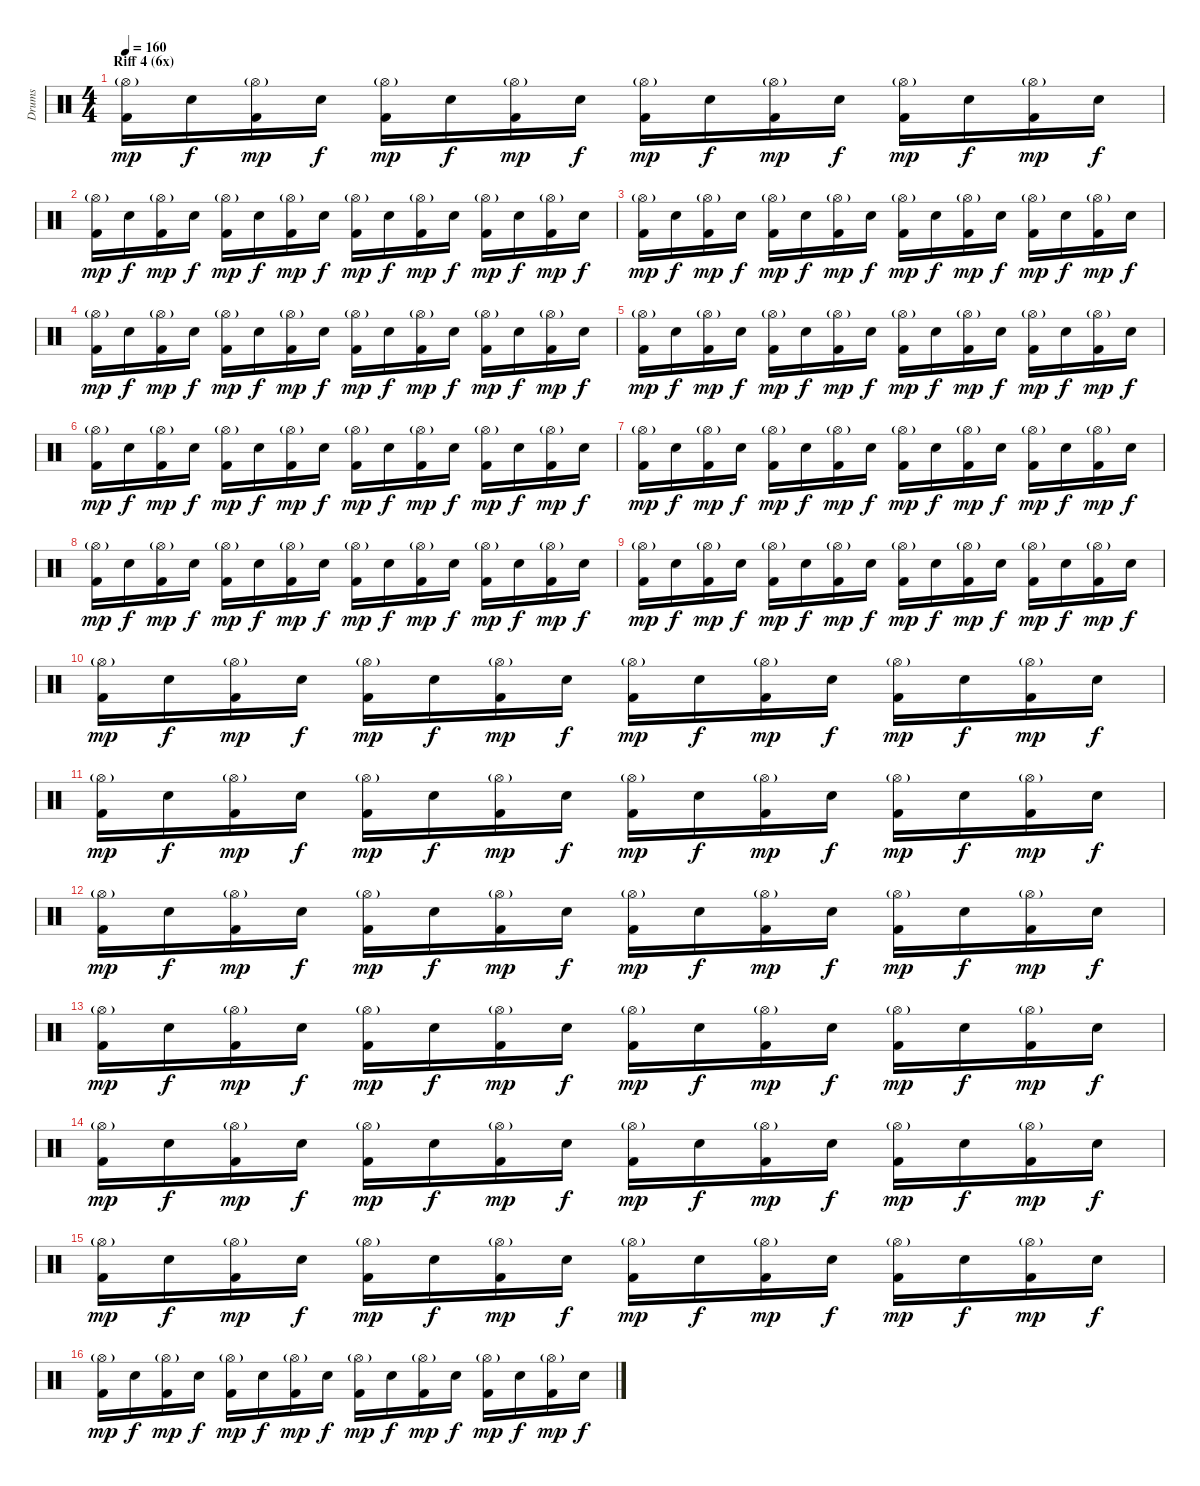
\track ("Drums" "Drums") {instrument percussion}
\staff {score}
\articulation defaults
\ts (4 4)
\section ("" "Riff 4 (6x)")
\tempo 160
\clef neutral
\ks c
("Hi-Hat (open)"{g} "Kick (hit) 2").16{dy mp} "Electric Snare (hit)".16{dy f} ("Hi-Hat (open)"{g} "Kick (hit) 2").16{dy mp} "Electric Snare (hit)".16{dy f} ("Hi-Hat (open)"{g} "Kick (hit) 2").16{dy mp} "Electric Snare (hit)".16{dy f} ("Hi-Hat (open)"{g} "Kick (hit) 2").16{dy mp} "Electric Snare (hit)".16{dy f} ("Hi-Hat (open)"{g} "Kick (hit) 2").16{dy mp} "Electric Snare (hit)".16{dy f} ("Hi-Hat (open)"{g} "Kick (hit) 2").16{dy mp} "Electric Snare (hit)".16{dy f} ("Hi-Hat (open)"{g} "Kick (hit) 2").16{dy mp} "Electric Snare (hit)".16{dy f} ("Hi-Hat (open)"{g} "Kick (hit) 2").16{dy mp} "Electric Snare (hit)".16{dy f} |
("Hi-Hat (open)"{g} "Kick (hit) 2").16{dy mp} "Electric Snare (hit)".16{dy f} ("Hi-Hat (open)"{g} "Kick (hit) 2").16{dy mp} "Electric Snare (hit)".16{dy f} ("Hi-Hat (open)"{g} "Kick (hit) 2").16{dy mp} "Electric Snare (hit)".16{dy f} ("Hi-Hat (open)"{g} "Kick (hit) 2").16{dy mp} "Electric Snare (hit)".16{dy f} ("Hi-Hat (open)"{g} "Kick (hit) 2").16{dy mp} "Electric Snare (hit)".16{dy f} ("Hi-Hat (open)"{g} "Kick (hit) 2").16{dy mp} "Electric Snare (hit)".16{dy f} ("Hi-Hat (open)"{g} "Kick (hit) 2").16{dy mp} "Electric Snare (hit)".16{dy f} ("Hi-Hat (open)"{g} "Kick (hit) 2").16{dy mp} "Electric Snare (hit)".16{dy f} |
("Hi-Hat (open)"{g} "Kick (hit) 2").16{dy mp} "Electric Snare (hit)".16{dy f} ("Hi-Hat (open)"{g} "Kick (hit) 2").16{dy mp} "Electric Snare (hit)".16{dy f} ("Hi-Hat (open)"{g} "Kick (hit) 2").16{dy mp} "Electric Snare (hit)".16{dy f} ("Hi-Hat (open)"{g} "Kick (hit) 2").16{dy mp} "Electric Snare (hit)".16{dy f} ("Hi-Hat (open)"{g} "Kick (hit) 2").16{dy mp} "Electric Snare (hit)".16{dy f} ("Hi-Hat (open)"{g} "Kick (hit) 2").16{dy mp} "Electric Snare (hit)".16{dy f} ("Hi-Hat (open)"{g} "Kick (hit) 2").16{dy mp} "Electric Snare (hit)".16{dy f} ("Hi-Hat (open)"{g} "Kick (hit) 2").16{dy mp} "Electric Snare (hit)".16{dy f} |
("Hi-Hat (open)"{g} "Kick (hit) 2").16{dy mp} "Electric Snare (hit)".16{dy f} ("Hi-Hat (open)"{g} "Kick (hit) 2").16{dy mp} "Electric Snare (hit)".16{dy f} ("Hi-Hat (open)"{g} "Kick (hit) 2").16{dy mp} "Electric Snare (hit)".16{dy f} ("Hi-Hat (open)"{g} "Kick (hit) 2").16{dy mp} "Electric Snare (hit)".16{dy f} ("Hi-Hat (open)"{g} "Kick (hit) 2").16{dy mp} "Electric Snare (hit)".16{dy f} ("Hi-Hat (open)"{g} "Kick (hit) 2").16{dy mp} "Electric Snare (hit)".16{dy f} ("Hi-Hat (open)"{g} "Kick (hit) 2").16{dy mp} "Electric Snare (hit)".16{dy f} ("Hi-Hat (open)"{g} "Kick (hit) 2").16{dy mp} "Electric Snare (hit)".16{dy f} |
("Hi-Hat (open)"{g} "Kick (hit) 2").16{dy mp} "Electric Snare (hit)".16{dy f} ("Hi-Hat (open)"{g} "Kick (hit) 2").16{dy mp} "Electric Snare (hit)".16{dy f} ("Hi-Hat (open)"{g} "Kick (hit) 2").16{dy mp} "Electric Snare (hit)".16{dy f} ("Hi-Hat (open)"{g} "Kick (hit) 2").16{dy mp} "Electric Snare (hit)".16{dy f} ("Hi-Hat (open)"{g} "Kick (hit) 2").16{dy mp} "Electric Snare (hit)".16{dy f} ("Hi-Hat (open)"{g} "Kick (hit) 2").16{dy mp} "Electric Snare (hit)".16{dy f} ("Hi-Hat (open)"{g} "Kick (hit) 2").16{dy mp} "Electric Snare (hit)".16{dy f} ("Hi-Hat (open)"{g} "Kick (hit) 2").16{dy mp} "Electric Snare (hit)".16{dy f} |
("Hi-Hat (open)"{g} "Kick (hit) 2").16{dy mp} "Electric Snare (hit)".16{dy f} ("Hi-Hat (open)"{g} "Kick (hit) 2").16{dy mp} "Electric Snare (hit)".16{dy f} ("Hi-Hat (open)"{g} "Kick (hit) 2").16{dy mp} "Electric Snare (hit)".16{dy f} ("Hi-Hat (open)"{g} "Kick (hit) 2").16{dy mp} "Electric Snare (hit)".16{dy f} ("Hi-Hat (open)"{g} "Kick (hit) 2").16{dy mp} "Electric Snare (hit)".16{dy f} ("Hi-Hat (open)"{g} "Kick (hit) 2").16{dy mp} "Electric Snare (hit)".16{dy f} ("Hi-Hat (open)"{g} "Kick (hit) 2").16{dy mp} "Electric Snare (hit)".16{dy f} ("Hi-Hat (open)"{g} "Kick (hit) 2").16{dy mp} "Electric Snare (hit)".16{dy f} |
("Hi-Hat (open)"{g} "Kick (hit) 2").16{dy mp} "Electric Snare (hit)".16{dy f} ("Hi-Hat (open)"{g} "Kick (hit) 2").16{dy mp} "Electric Snare (hit)".16{dy f} ("Hi-Hat (open)"{g} "Kick (hit) 2").16{dy mp} "Electric Snare (hit)".16{dy f} ("Hi-Hat (open)"{g} "Kick (hit) 2").16{dy mp} "Electric Snare (hit)".16{dy f} ("Hi-Hat (open)"{g} "Kick (hit) 2").16{dy mp} "Electric Snare (hit)".16{dy f} ("Hi-Hat (open)"{g} "Kick (hit) 2").16{dy mp} "Electric Snare (hit)".16{dy f} ("Hi-Hat (open)"{g} "Kick (hit) 2").16{dy mp} "Electric Snare (hit)".16{dy f} ("Hi-Hat (open)"{g} "Kick (hit) 2").16{dy mp} "Electric Snare (hit)".16{dy f} |
("Hi-Hat (open)"{g} "Kick (hit) 2").16{dy mp} "Electric Snare (hit)".16{dy f} ("Hi-Hat (open)"{g} "Kick (hit) 2").16{dy mp} "Electric Snare (hit)".16{dy f} ("Hi-Hat (open)"{g} "Kick (hit) 2").16{dy mp} "Electric Snare (hit)".16{dy f} ("Hi-Hat (open)"{g} "Kick (hit) 2").16{dy mp} "Electric Snare (hit)".16{dy f} ("Hi-Hat (open)"{g} "Kick (hit) 2").16{dy mp} "Electric Snare (hit)".16{dy f} ("Hi-Hat (open)"{g} "Kick (hit) 2").16{dy mp} "Electric Snare (hit)".16{dy f} ("Hi-Hat (open)"{g} "Kick (hit) 2").16{dy mp} "Electric Snare (hit)".16{dy f} ("Hi-Hat (open)"{g} "Kick (hit) 2").16{dy mp} "Electric Snare (hit)".16{dy f} |
("Hi-Hat (open)"{g} "Kick (hit) 2").16{dy mp} "Electric Snare (hit)".16{dy f} ("Hi-Hat (open)"{g} "Kick (hit) 2").16{dy mp} "Electric Snare (hit)".16{dy f} ("Hi-Hat (open)"{g} "Kick (hit) 2").16{dy mp} "Electric Snare (hit)".16{dy f} ("Hi-Hat (open)"{g} "Kick (hit) 2").16{dy mp} "Electric Snare (hit)".16{dy f} ("Hi-Hat (open)"{g} "Kick (hit) 2").16{dy mp} "Electric Snare (hit)".16{dy f} ("Hi-Hat (open)"{g} "Kick (hit) 2").16{dy mp} "Electric Snare (hit)".16{dy f} ("Hi-Hat (open)"{g} "Kick (hit) 2").16{dy mp} "Electric Snare (hit)".16{dy f} ("Hi-Hat (open)"{g} "Kick (hit) 2").16{dy mp} "Electric Snare (hit)".16{dy f} |
("Hi-Hat (open)"{g} "Kick (hit) 2").16{dy mp} "Electric Snare (hit)".16{dy f} ("Hi-Hat (open)"{g} "Kick (hit) 2").16{dy mp} "Electric Snare (hit)".16{dy f} ("Hi-Hat (open)"{g} "Kick (hit) 2").16{dy mp} "Electric Snare (hit)".16{dy f} ("Hi-Hat (open)"{g} "Kick (hit) 2").16{dy mp} "Electric Snare (hit)".16{dy f} ("Hi-Hat (open)"{g} "Kick (hit) 2").16{dy mp} "Electric Snare (hit)".16{dy f} ("Hi-Hat (open)"{g} "Kick (hit) 2").16{dy mp} "Electric Snare (hit)".16{dy f} ("Hi-Hat (open)"{g} "Kick (hit) 2").16{dy mp} "Electric Snare (hit)".16{dy f} ("Hi-Hat (open)"{g} "Kick (hit) 2").16{dy mp} "Electric Snare (hit)".16{dy f} |
("Hi-Hat (open)"{g} "Kick (hit) 2").16{dy mp} "Electric Snare (hit)".16{dy f} ("Hi-Hat (open)"{g} "Kick (hit) 2").16{dy mp} "Electric Snare (hit)".16{dy f} ("Hi-Hat (open)"{g} "Kick (hit) 2").16{dy mp} "Electric Snare (hit)".16{dy f} ("Hi-Hat (open)"{g} "Kick (hit) 2").16{dy mp} "Electric Snare (hit)".16{dy f} ("Hi-Hat (open)"{g} "Kick (hit) 2").16{dy mp} "Electric Snare (hit)".16{dy f} ("Hi-Hat (open)"{g} "Kick (hit) 2").16{dy mp} "Electric Snare (hit)".16{dy f} ("Hi-Hat (open)"{g} "Kick (hit) 2").16{dy mp} "Electric Snare (hit)".16{dy f} ("Hi-Hat (open)"{g} "Kick (hit) 2").16{dy mp} "Electric Snare (hit)".16{dy f} |
("Hi-Hat (open)"{g} "Kick (hit) 2").16{dy mp} "Electric Snare (hit)".16{dy f} ("Hi-Hat (open)"{g} "Kick (hit) 2").16{dy mp} "Electric Snare (hit)".16{dy f} ("Hi-Hat (open)"{g} "Kick (hit) 2").16{dy mp} "Electric Snare (hit)".16{dy f} ("Hi-Hat (open)"{g} "Kick (hit) 2").16{dy mp} "Electric Snare (hit)".16{dy f} ("Hi-Hat (open)"{g} "Kick (hit) 2").16{dy mp} "Electric Snare (hit)".16{dy f} ("Hi-Hat (open)"{g} "Kick (hit) 2").16{dy mp} "Electric Snare (hit)".16{dy f} ("Hi-Hat (open)"{g} "Kick (hit) 2").16{dy mp} "Electric Snare (hit)".16{dy f} ("Hi-Hat (open)"{g} "Kick (hit) 2").16{dy mp} "Electric Snare (hit)".16{dy f} |
("Hi-Hat (open)"{g} "Kick (hit) 2").16{dy mp} "Electric Snare (hit)".16{dy f} ("Hi-Hat (open)"{g} "Kick (hit) 2").16{dy mp} "Electric Snare (hit)".16{dy f} ("Hi-Hat (open)"{g} "Kick (hit) 2").16{dy mp} "Electric Snare (hit)".16{dy f} ("Hi-Hat (open)"{g} "Kick (hit) 2").16{dy mp} "Electric Snare (hit)".16{dy f} ("Hi-Hat (open)"{g} "Kick (hit) 2").16{dy mp} "Electric Snare (hit)".16{dy f} ("Hi-Hat (open)"{g} "Kick (hit) 2").16{dy mp} "Electric Snare (hit)".16{dy f} ("Hi-Hat (open)"{g} "Kick (hit) 2").16{dy mp} "Electric Snare (hit)".16{dy f} ("Hi-Hat (open)"{g} "Kick (hit) 2").16{dy mp} "Electric Snare (hit)".16{dy f} |
("Hi-Hat (open)"{g} "Kick (hit) 2").16{dy mp} "Electric Snare (hit)".16{dy f} ("Hi-Hat (open)"{g} "Kick (hit) 2").16{dy mp} "Electric Snare (hit)".16{dy f} ("Hi-Hat (open)"{g} "Kick (hit) 2").16{dy mp} "Electric Snare (hit)".16{dy f} ("Hi-Hat (open)"{g} "Kick (hit) 2").16{dy mp} "Electric Snare (hit)".16{dy f} ("Hi-Hat (open)"{g} "Kick (hit) 2").16{dy mp} "Electric Snare (hit)".16{dy f} ("Hi-Hat (open)"{g} "Kick (hit) 2").16{dy mp} "Electric Snare (hit)".16{dy f} ("Hi-Hat (open)"{g} "Kick (hit) 2").16{dy mp} "Electric Snare (hit)".16{dy f} ("Hi-Hat (open)"{g} "Kick (hit) 2").16{dy mp} "Electric Snare (hit)".16{dy f} |
("Hi-Hat (open)"{g} "Kick (hit) 2").16{dy mp} "Electric Snare (hit)".16{dy f} ("Hi-Hat (open)"{g} "Kick (hit) 2").16{dy mp} "Electric Snare (hit)".16{dy f} ("Hi-Hat (open)"{g} "Kick (hit) 2").16{dy mp} "Electric Snare (hit)".16{dy f} ("Hi-Hat (open)"{g} "Kick (hit) 2").16{dy mp} "Electric Snare (hit)".16{dy f} ("Hi-Hat (open)"{g} "Kick (hit) 2").16{dy mp} "Electric Snare (hit)".16{dy f} ("Hi-Hat (open)"{g} "Kick (hit) 2").16{dy mp} "Electric Snare (hit)".16{dy f} ("Hi-Hat (open)"{g} "Kick (hit) 2").16{dy mp} "Electric Snare (hit)".16{dy f} ("Hi-Hat (open)"{g} "Kick (hit) 2").16{dy mp} "Electric Snare (hit)".16{dy f} |
("Hi-Hat (open)"{g} "Kick (hit) 2").16{dy mp} "Electric Snare (hit)".16{dy f} ("Hi-Hat (open)"{g} "Kick (hit) 2").16{dy mp} "Electric Snare (hit)".16{dy f} ("Hi-Hat (open)"{g} "Kick (hit) 2").16{dy mp} "Electric Snare (hit)".16{dy f} ("Hi-Hat (open)"{g} "Kick (hit) 2").16{dy mp} "Electric Snare (hit)".16{dy f} ("Hi-Hat (open)"{g} "Kick (hit) 2").16{dy mp} "Electric Snare (hit)".16{dy f} ("Hi-Hat (open)"{g} "Kick (hit) 2").16{dy mp} "Electric Snare (hit)".16{dy f} ("Hi-Hat (open)"{g} "Kick (hit) 2").16{dy mp} "Electric Snare (hit)".16{dy f} ("Hi-Hat (open)"{g} "Kick (hit) 2").16{dy mp} "Electric Snare (hit)".16{dy f}
